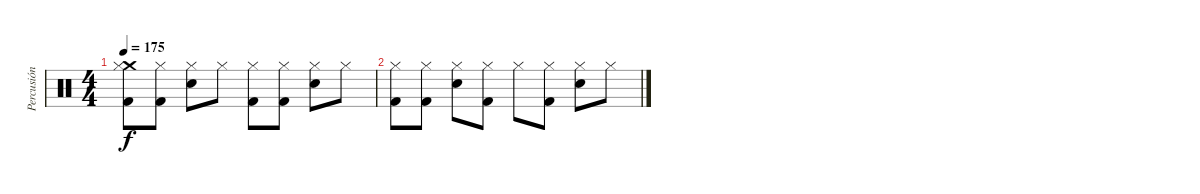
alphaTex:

\track ("Percusión" "Percusión") {instrument percussion}
\staff {score}
\articulation defaults
\ts (4 4)
\tempo 175
\clef neutral
\ks c
("Crash medium (hit)" "Hi-Hat (closed)" "Kick (hit) 2").8{dy f} ("Hi-Hat (closed)" "Kick (hit) 2").8 ("Hi-Hat (closed)" "Snare (hit) 2").8 "Hi-Hat (closed)".8 ("Hi-Hat (closed)" "Kick (hit) 2").8 ("Hi-Hat (closed)" "Kick (hit) 2").8 ("Hi-Hat (closed)" "Snare (hit) 2").8 "Hi-Hat (closed)".8 |
("Hi-Hat (closed)" "Kick (hit) 2").8 ("Hi-Hat (closed)" "Kick (hit) 2").8 ("Hi-Hat (closed)" "Snare (hit) 2").8 ("Hi-Hat (closed)" "Kick (hit) 2").8 "Hi-Hat (closed)".8 ("Hi-Hat (closed)" "Kick (hit) 2").8 ("Hi-Hat (closed)" "Snare (hit) 2").8 "Hi-Hat (closed)".8
